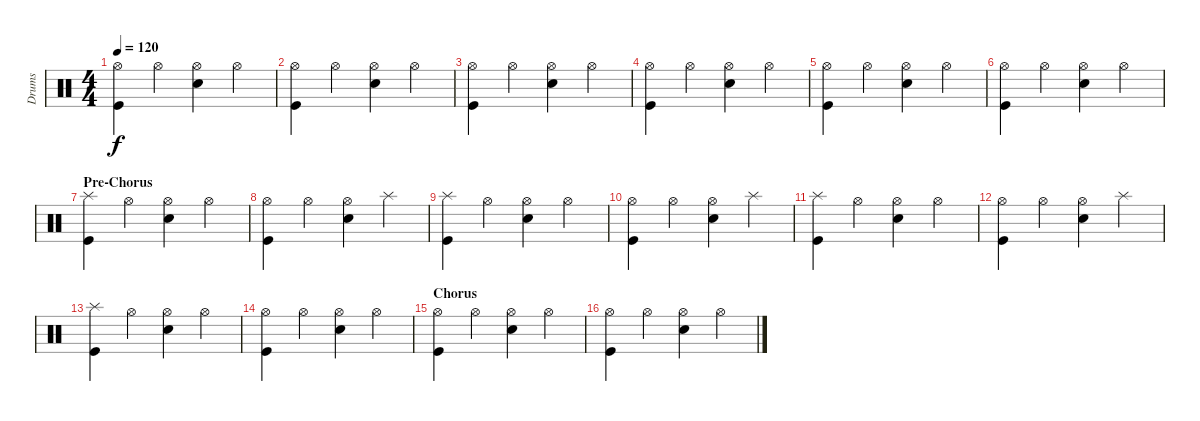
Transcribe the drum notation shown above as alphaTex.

\track ("Drums" "Drums") {instrument percussion}
\staff {score}
\articulation defaults
\ts (4 4)
\tempo 120
\clef neutral
\ks c
("Hi-Hat (open)" "Kick (hit)").4{dy f} "Hi-Hat (open)".4 ("Hi-Hat (open)" "Snare (hit) 2").4 "Hi-Hat (open)".4 |
("Hi-Hat (open)" "Kick (hit)").4 "Hi-Hat (open)".4 ("Hi-Hat (open)" "Snare (hit) 2").4 "Hi-Hat (open)".4 |
("Hi-Hat (open)" "Kick (hit)").4 "Hi-Hat (open)".4 ("Hi-Hat (open)" "Snare (hit) 2").4 "Hi-Hat (open)".4 |
("Hi-Hat (open)" "Kick (hit)").4 "Hi-Hat (open)".4 ("Hi-Hat (open)" "Snare (hit) 2").4 "Hi-Hat (open)".4 |
("Hi-Hat (open)" "Kick (hit)").4 "Hi-Hat (open)".4 ("Hi-Hat (open)" "Snare (hit) 2").4 "Hi-Hat (open)".4 |
("Hi-Hat (open)" "Kick (hit)").4 "Hi-Hat (open)".4 ("Hi-Hat (open)" "Snare (hit) 2").4 "Hi-Hat (open)".4 |
\section ("" "Pre-Chorus")
("Splash (hit)" "Kick (hit)").4 "Hi-Hat (open)".4 ("Hi-Hat (open)" "Snare (hit) 2").4 "Hi-Hat (open)".4 |
("Hi-Hat (open)" "Kick (hit)").4 "Hi-Hat (open)".4 ("Hi-Hat (open)" "Snare (hit) 2").4 "Splash (hit)".4 |
("Splash (hit)" "Kick (hit)").4 "Hi-Hat (open)".4 ("Hi-Hat (open)" "Snare (hit) 2").4 "Hi-Hat (open)".4 |
("Hi-Hat (open)" "Kick (hit)").4 "Hi-Hat (open)".4 ("Hi-Hat (open)" "Snare (hit) 2").4 "Splash (hit)".4 |
("Splash (hit)" "Kick (hit)").4 "Hi-Hat (open)".4 ("Hi-Hat (open)" "Snare (hit) 2").4 "Hi-Hat (open)".4 |
("Hi-Hat (open)" "Kick (hit)").4 "Hi-Hat (open)".4 ("Hi-Hat (open)" "Snare (hit) 2").4 "Splash (hit)".4 |
("Splash (hit)" "Kick (hit)").4 "Hi-Hat (open)".4 ("Hi-Hat (open)" "Snare (hit) 2").4 "Hi-Hat (open)".4 |
("Hi-Hat (open)" "Kick (hit)").4 "Hi-Hat (open)".4 ("Hi-Hat (open)" "Snare (hit) 2").4 "Hi-Hat (open)".4 |
\section ("" "Chorus")
("Hi-Hat (open)" "Kick (hit)").4 "Hi-Hat (open)".4 ("Hi-Hat (open)" "Snare (hit) 2").4 "Hi-Hat (open)".4 |
("Hi-Hat (open)" "Kick (hit)").4 "Hi-Hat (open)".4 ("Hi-Hat (open)" "Snare (hit) 2").4 "Hi-Hat (open)".4
